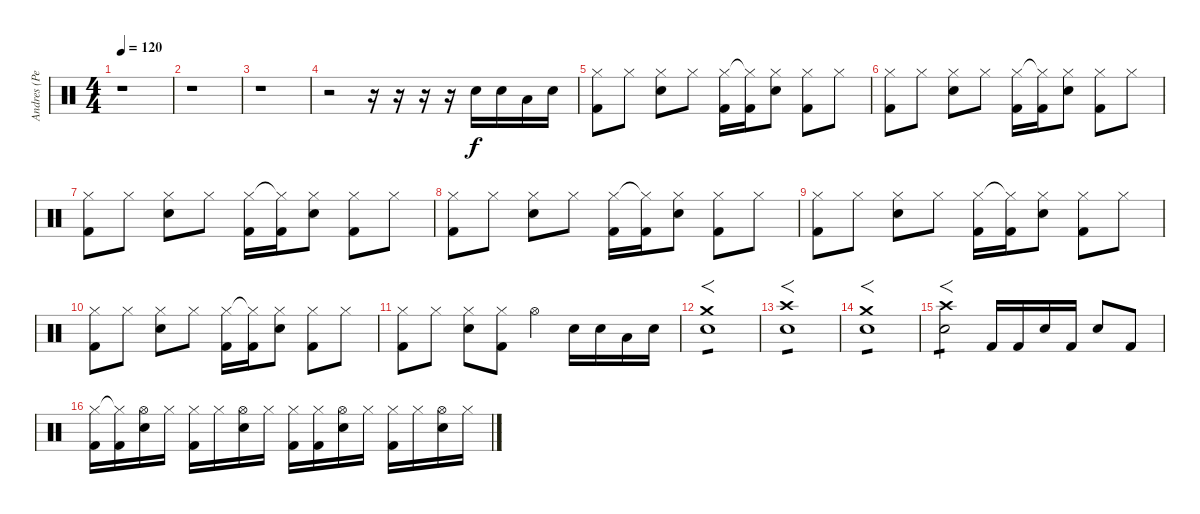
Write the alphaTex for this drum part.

\track ("Andres (Percussion)" "Andres (Pe") {instrument percussion}
\staff {score}
\articulation defaults
\ts (4 4)
\tempo 120
\clef neutral
\ks c
r.1{dy f} |
r.1 |
r.1 |
r.2 r.16 r.16 r.16 r.16 "Electric Snare (hit)".16 "Electric Snare (hit)".16 "Low Tom (hit)".16 "Electric Snare (hit)".16 |
("Hi-Hat (closed)" "Kick (hit) 2").8 "Hi-Hat (closed)".8 ("Hi-Hat (closed)" "Electric Snare (hit)").8 "Hi-Hat (closed)".8 ("Hi-Hat (closed)" "Kick (hit) 2").16 ("Hi-Hat (closed)"{t} "Kick (hit) 2").16 ("Hi-Hat (closed)" "Electric Snare (hit)").8 ("Hi-Hat (closed)" "Kick (hit) 2").8 "Hi-Hat (closed)".8 |
("Hi-Hat (closed)" "Kick (hit) 2").8 "Hi-Hat (closed)".8 ("Hi-Hat (closed)" "Electric Snare (hit)").8 "Hi-Hat (closed)".8 ("Hi-Hat (closed)" "Kick (hit) 2").16 ("Hi-Hat (closed)"{t} "Kick (hit) 2").16 ("Hi-Hat (closed)" "Electric Snare (hit)").8 ("Hi-Hat (closed)" "Kick (hit) 2").8 "Hi-Hat (closed)".8 |
("Hi-Hat (closed)" "Kick (hit) 2").8 "Hi-Hat (closed)".8 ("Hi-Hat (closed)" "Electric Snare (hit)").8 "Hi-Hat (closed)".8 ("Hi-Hat (closed)" "Kick (hit) 2").16 ("Hi-Hat (closed)"{t} "Kick (hit) 2").16 ("Hi-Hat (closed)" "Electric Snare (hit)").8 ("Hi-Hat (closed)" "Kick (hit) 2").8 "Hi-Hat (closed)".8 |
("Hi-Hat (closed)" "Kick (hit) 2").8 "Hi-Hat (closed)".8 ("Hi-Hat (closed)" "Electric Snare (hit)").8 "Hi-Hat (closed)".8 ("Hi-Hat (closed)" "Kick (hit) 2").16 ("Hi-Hat (closed)"{t} "Kick (hit) 2").16 ("Hi-Hat (closed)" "Electric Snare (hit)").8 ("Hi-Hat (closed)" "Kick (hit) 2").8 "Hi-Hat (closed)".8 |
("Hi-Hat (closed)" "Kick (hit) 2").8 "Hi-Hat (closed)".8 ("Hi-Hat (closed)" "Electric Snare (hit)").8 "Hi-Hat (closed)".8 ("Hi-Hat (closed)" "Kick (hit) 2").16 ("Hi-Hat (closed)"{t} "Kick (hit) 2").16 ("Hi-Hat (closed)" "Electric Snare (hit)").8 ("Hi-Hat (closed)" "Kick (hit) 2").8 "Hi-Hat (closed)".8 |
("Hi-Hat (closed)" "Kick (hit) 2").8 "Hi-Hat (closed)".8 ("Hi-Hat (closed)" "Electric Snare (hit)").8 "Hi-Hat (closed)".8 ("Hi-Hat (closed)" "Kick (hit) 2").16 ("Hi-Hat (closed)"{t} "Kick (hit) 2").16 ("Hi-Hat (closed)" "Electric Snare (hit)").8 ("Hi-Hat (closed)" "Kick (hit) 2").8 "Hi-Hat (closed)".8 |
("Hi-Hat (closed)" "Kick (hit) 2").8 "Hi-Hat (closed)".8 ("Hi-Hat (closed)" "Electric Snare (hit)").8 ("Hi-Hat (closed)" "Kick (hit) 2").8 "Hi-Hat (open)".4 "Electric Snare (hit)".16 "Electric Snare (hit)".16 "Low Tom (hit)".16 "Electric Snare (hit)".16 |
("Crash medium (hit)" "Electric Snare (hit)").1{f tp 1} |
("Crash high (hit)" "Electric Snare (hit)").1{f tp 1} |
("Crash medium (hit)" "Electric Snare (hit)").1{f tp 1} |
("Crash high (hit)" "Electric Snare (hit)").2{f tp 1} "Kick (hit) 2".16 "Kick (hit) 2".16 "Electric Snare (hit)".16 "Kick (hit) 2".16 "Electric Snare (hit)".8 "Kick (hit) 2".8 |
("Hi-Hat (closed)" "Kick (hit) 2").16 ("Hi-Hat (closed)"{t} "Kick (hit) 2").16 ("Hi-Hat (open)" "Electric Snare (hit)").16 "Hi-Hat (closed)".16 ("Hi-Hat (closed)" "Kick (hit) 2").16 "Hi-Hat (closed)".16 ("Hi-Hat (open)" "Electric Snare (hit)").16 "Hi-Hat (closed)".16 ("Hi-Hat (closed)" "Kick (hit) 2").16 ("Hi-Hat (closed)" "Kick (hit) 2").16 ("Hi-Hat (open)" "Electric Snare (hit)").16 "Hi-Hat (closed)".16 ("Hi-Hat (closed)" "Kick (hit) 2").16 "Hi-Hat (closed)".16 ("Hi-Hat (open)" "Electric Snare (hit)").16 "Hi-Hat (closed)".16
